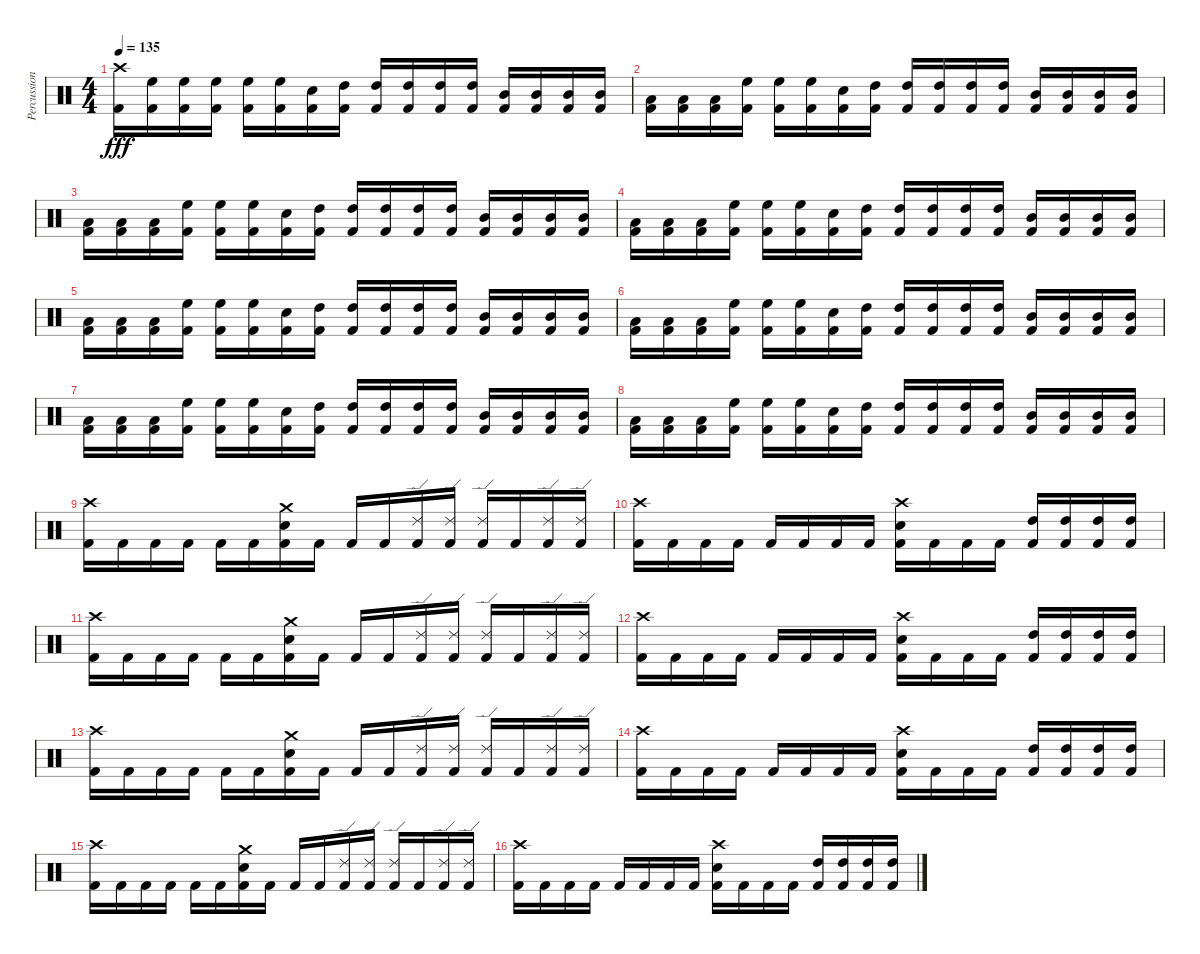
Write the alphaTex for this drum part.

\track ("Percussion" "Percussion") {instrument percussion}
\staff {score}
\articulation defaults
\ts (4 4)
\tempo 135
\clef neutral
\ks c
("Crash high (hit)" "Kick (hit) 2").16{dy fff} ("High Floor Tom (hit)" "Kick (hit) 2").16 ("High Floor Tom (hit)" "Kick (hit) 2").16 ("High Floor Tom (hit)" "Kick (hit) 2").16 ("High Floor Tom (hit)" "Kick (hit) 2").16 ("High Floor Tom (hit)" "Kick (hit) 2").16 ("Snare (hit) 2" "Kick (hit) 2").16 ("High Tom (hit)" "Kick (hit) 2").16 ("High Tom (hit)" "Kick (hit) 2").16 ("High Tom (hit)" "Kick (hit) 2").16 ("High Tom (hit)" "Kick (hit) 2").16 ("High Tom (hit)" "Kick (hit) 2").16 ("Mid Tom (hit)" "Kick (hit) 2").16 ("Mid Tom (hit)" "Kick (hit) 2").16 ("Mid Tom (hit)" "Kick (hit) 2").16 ("Mid Tom (hit)" "Kick (hit) 2").16 |
("Low Tom (hit)" "Kick (hit) 2").16 ("Low Tom (hit)" "Kick (hit) 2").16 ("Low Tom (hit)" "Kick (hit) 2").16 ("High Floor Tom (hit)" "Kick (hit) 2").16 ("High Floor Tom (hit)" "Kick (hit) 2").16 ("High Floor Tom (hit)" "Kick (hit) 2").16 ("Snare (hit) 2" "Kick (hit) 2").16 ("High Tom (hit)" "Kick (hit) 2").16 ("High Tom (hit)" "Kick (hit) 2").16 ("High Tom (hit)" "Kick (hit) 2").16 ("High Tom (hit)" "Kick (hit) 2").16 ("High Tom (hit)" "Kick (hit) 2").16 ("Mid Tom (hit)" "Kick (hit) 2").16 ("Mid Tom (hit)" "Kick (hit) 2").16 ("Mid Tom (hit)" "Kick (hit) 2").16 ("Mid Tom (hit)" "Kick (hit) 2").16 |
("Low Tom (hit)" "Kick (hit) 2").16 ("Low Tom (hit)" "Kick (hit) 2").16 ("Low Tom (hit)" "Kick (hit) 2").16 ("High Floor Tom (hit)" "Kick (hit) 2").16 ("High Floor Tom (hit)" "Kick (hit) 2").16 ("High Floor Tom (hit)" "Kick (hit) 2").16 ("Snare (hit) 2" "Kick (hit) 2").16 ("High Tom (hit)" "Kick (hit) 2").16 ("High Tom (hit)" "Kick (hit) 2").16 ("High Tom (hit)" "Kick (hit) 2").16 ("High Tom (hit)" "Kick (hit) 2").16 ("High Tom (hit)" "Kick (hit) 2").16 ("Mid Tom (hit)" "Kick (hit) 2").16 ("Mid Tom (hit)" "Kick (hit) 2").16 ("Mid Tom (hit)" "Kick (hit) 2").16 ("Mid Tom (hit)" "Kick (hit) 2").16 |
("Low Tom (hit)" "Kick (hit) 2").16 ("Low Tom (hit)" "Kick (hit) 2").16 ("Low Tom (hit)" "Kick (hit) 2").16 ("High Floor Tom (hit)" "Kick (hit) 2").16 ("High Floor Tom (hit)" "Kick (hit) 2").16 ("High Floor Tom (hit)" "Kick (hit) 2").16 ("Snare (hit) 2" "Kick (hit) 2").16 ("High Tom (hit)" "Kick (hit) 2").16 ("High Tom (hit)" "Kick (hit) 2").16 ("High Tom (hit)" "Kick (hit) 2").16 ("High Tom (hit)" "Kick (hit) 2").16 ("High Tom (hit)" "Kick (hit) 2").16 ("Mid Tom (hit)" "Kick (hit) 2").16 ("Mid Tom (hit)" "Kick (hit) 2").16 ("Mid Tom (hit)" "Kick (hit) 2").16 ("Mid Tom (hit)" "Kick (hit) 2").16 |
("Low Tom (hit)" "Kick (hit) 2").16 ("Low Tom (hit)" "Kick (hit) 2").16 ("Low Tom (hit)" "Kick (hit) 2").16 ("High Floor Tom (hit)" "Kick (hit) 2").16 ("High Floor Tom (hit)" "Kick (hit) 2").16 ("High Floor Tom (hit)" "Kick (hit) 2").16 ("Snare (hit) 2" "Kick (hit) 2").16 ("High Tom (hit)" "Kick (hit) 2").16 ("High Tom (hit)" "Kick (hit) 2").16 ("High Tom (hit)" "Kick (hit) 2").16 ("High Tom (hit)" "Kick (hit) 2").16 ("High Tom (hit)" "Kick (hit) 2").16 ("Mid Tom (hit)" "Kick (hit) 2").16 ("Mid Tom (hit)" "Kick (hit) 2").16 ("Mid Tom (hit)" "Kick (hit) 2").16 ("Mid Tom (hit)" "Kick (hit) 2").16 |
("Low Tom (hit)" "Kick (hit) 2").16 ("Low Tom (hit)" "Kick (hit) 2").16 ("Low Tom (hit)" "Kick (hit) 2").16 ("High Floor Tom (hit)" "Kick (hit) 2").16 ("High Floor Tom (hit)" "Kick (hit) 2").16 ("High Floor Tom (hit)" "Kick (hit) 2").16 ("Snare (hit) 2" "Kick (hit) 2").16 ("High Tom (hit)" "Kick (hit) 2").16 ("High Tom (hit)" "Kick (hit) 2").16 ("High Tom (hit)" "Kick (hit) 2").16 ("High Tom (hit)" "Kick (hit) 2").16 ("High Tom (hit)" "Kick (hit) 2").16 ("Mid Tom (hit)" "Kick (hit) 2").16 ("Mid Tom (hit)" "Kick (hit) 2").16 ("Mid Tom (hit)" "Kick (hit) 2").16 ("Mid Tom (hit)" "Kick (hit) 2").16 |
("Low Tom (hit)" "Kick (hit) 2").16 ("Low Tom (hit)" "Kick (hit) 2").16 ("Low Tom (hit)" "Kick (hit) 2").16 ("High Floor Tom (hit)" "Kick (hit) 2").16 ("High Floor Tom (hit)" "Kick (hit) 2").16 ("High Floor Tom (hit)" "Kick (hit) 2").16 ("Snare (hit) 2" "Kick (hit) 2").16 ("High Tom (hit)" "Kick (hit) 2").16 ("High Tom (hit)" "Kick (hit) 2").16 ("High Tom (hit)" "Kick (hit) 2").16 ("High Tom (hit)" "Kick (hit) 2").16 ("High Tom (hit)" "Kick (hit) 2").16 ("Mid Tom (hit)" "Kick (hit) 2").16 ("Mid Tom (hit)" "Kick (hit) 2").16 ("Mid Tom (hit)" "Kick (hit) 2").16 ("Mid Tom (hit)" "Kick (hit) 2").16 |
("Low Tom (hit)" "Kick (hit) 2").16 ("Low Tom (hit)" "Kick (hit) 2").16 ("Low Tom (hit)" "Kick (hit) 2").16 ("High Floor Tom (hit)" "Kick (hit) 2").16 ("High Floor Tom (hit)" "Kick (hit) 2").16 ("High Floor Tom (hit)" "Kick (hit) 2").16 ("Snare (hit) 2" "Kick (hit) 2").16 ("High Tom (hit)" "Kick (hit) 2").16 ("High Tom (hit)" "Kick (hit) 2").16 ("High Tom (hit)" "Kick (hit) 2").16 ("High Tom (hit)" "Kick (hit) 2").16 ("High Tom (hit)" "Kick (hit) 2").16 ("Mid Tom (hit)" "Kick (hit) 2").16 ("Mid Tom (hit)" "Kick (hit) 2").16 ("Mid Tom (hit)" "Kick (hit) 2").16 ("Mid Tom (hit)" "Kick (hit) 2").16 |
("Crash high (hit)" "Kick (hit) 2").16 "Kick (hit) 2".16 "Kick (hit) 2".16 "Kick (hit) 2".16 "Kick (hit) 2".16 "Kick (hit) 2".16 ("Crash medium (hit)" "Snare (hit) 2" "Kick (hit) 2").16 "Kick (hit) 2".16 "Kick (hit) 2".16 "Kick (hit) 2".16 ("Ride (edge) 2" "Kick (hit) 2").16 ("Ride (edge) 2" "Kick (hit) 2").16 ("Ride (edge) 2" "Kick (hit) 2").16 "Kick (hit) 2".16 ("Ride (edge) 2" "Kick (hit) 2").16 ("Ride (edge) 2" "Kick (hit) 2").16 |
("Crash high (hit)" "Kick (hit) 2").16 "Kick (hit) 2".16 "Kick (hit) 2".16 "Kick (hit) 2".16 "Kick (hit) 2".16 "Kick (hit) 2".16 "Kick (hit) 2".16 "Kick (hit) 2".16 ("Crash high (hit)" "Snare (hit) 2" "Kick (hit) 2").16 "Kick (hit) 2".16 "Kick (hit) 2".16 "Kick (hit) 2".16 ("High Tom (hit)" "Kick (hit) 2").16 ("High Tom (hit)" "Kick (hit) 2").16 ("High Tom (hit)" "Kick (hit) 2").16 ("High Tom (hit)" "Kick (hit) 2").16 |
("Crash high (hit)" "Kick (hit) 2").16 "Kick (hit) 2".16 "Kick (hit) 2".16 "Kick (hit) 2".16 "Kick (hit) 2".16 "Kick (hit) 2".16 ("Crash medium (hit)" "Snare (hit) 2" "Kick (hit) 2").16 "Kick (hit) 2".16 "Kick (hit) 2".16 "Kick (hit) 2".16 ("Ride (edge) 2" "Kick (hit) 2").16 ("Ride (edge) 2" "Kick (hit) 2").16 ("Ride (edge) 2" "Kick (hit) 2").16 "Kick (hit) 2".16 ("Ride (edge) 2" "Kick (hit) 2").16 ("Ride (edge) 2" "Kick (hit) 2").16 |
("Crash high (hit)" "Kick (hit) 2").16 "Kick (hit) 2".16 "Kick (hit) 2".16 "Kick (hit) 2".16 "Kick (hit) 2".16 "Kick (hit) 2".16 "Kick (hit) 2".16 "Kick (hit) 2".16 ("Crash high (hit)" "Snare (hit) 2" "Kick (hit) 2").16 "Kick (hit) 2".16 "Kick (hit) 2".16 "Kick (hit) 2".16 ("High Tom (hit)" "Kick (hit) 2").16 ("High Tom (hit)" "Kick (hit) 2").16 ("High Tom (hit)" "Kick (hit) 2").16 ("High Tom (hit)" "Kick (hit) 2").16 |
("Crash high (hit)" "Kick (hit) 2").16 "Kick (hit) 2".16 "Kick (hit) 2".16 "Kick (hit) 2".16 "Kick (hit) 2".16 "Kick (hit) 2".16 ("Crash medium (hit)" "Snare (hit) 2" "Kick (hit) 2").16 "Kick (hit) 2".16 "Kick (hit) 2".16 "Kick (hit) 2".16 ("Ride (edge) 2" "Kick (hit) 2").16 ("Ride (edge) 2" "Kick (hit) 2").16 ("Ride (edge) 2" "Kick (hit) 2").16 "Kick (hit) 2".16 ("Ride (edge) 2" "Kick (hit) 2").16 ("Ride (edge) 2" "Kick (hit) 2").16 |
("Crash high (hit)" "Kick (hit) 2").16 "Kick (hit) 2".16 "Kick (hit) 2".16 "Kick (hit) 2".16 "Kick (hit) 2".16 "Kick (hit) 2".16 "Kick (hit) 2".16 "Kick (hit) 2".16 ("Crash high (hit)" "Snare (hit) 2" "Kick (hit) 2").16 "Kick (hit) 2".16 "Kick (hit) 2".16 "Kick (hit) 2".16 ("High Tom (hit)" "Kick (hit) 2").16 ("High Tom (hit)" "Kick (hit) 2").16 ("High Tom (hit)" "Kick (hit) 2").16 ("High Tom (hit)" "Kick (hit) 2").16 |
("Crash high (hit)" "Kick (hit) 2").16 "Kick (hit) 2".16 "Kick (hit) 2".16 "Kick (hit) 2".16 "Kick (hit) 2".16 "Kick (hit) 2".16 ("Crash medium (hit)" "Snare (hit) 2" "Kick (hit) 2").16 "Kick (hit) 2".16 "Kick (hit) 2".16 "Kick (hit) 2".16 ("Ride (edge) 2" "Kick (hit) 2").16 ("Ride (edge) 2" "Kick (hit) 2").16 ("Ride (edge) 2" "Kick (hit) 2").16 "Kick (hit) 2".16 ("Ride (edge) 2" "Kick (hit) 2").16 ("Ride (edge) 2" "Kick (hit) 2").16 |
("Crash high (hit)" "Kick (hit) 2").16 "Kick (hit) 2".16 "Kick (hit) 2".16 "Kick (hit) 2".16 "Kick (hit) 2".16 "Kick (hit) 2".16 "Kick (hit) 2".16 "Kick (hit) 2".16 ("Crash high (hit)" "Snare (hit) 2" "Kick (hit) 2").16 "Kick (hit) 2".16 "Kick (hit) 2".16 "Kick (hit) 2".16 ("High Tom (hit)" "Kick (hit) 2").16 ("High Tom (hit)" "Kick (hit) 2").16 ("High Tom (hit)" "Kick (hit) 2").16 ("High Tom (hit)" "Kick (hit) 2").16
